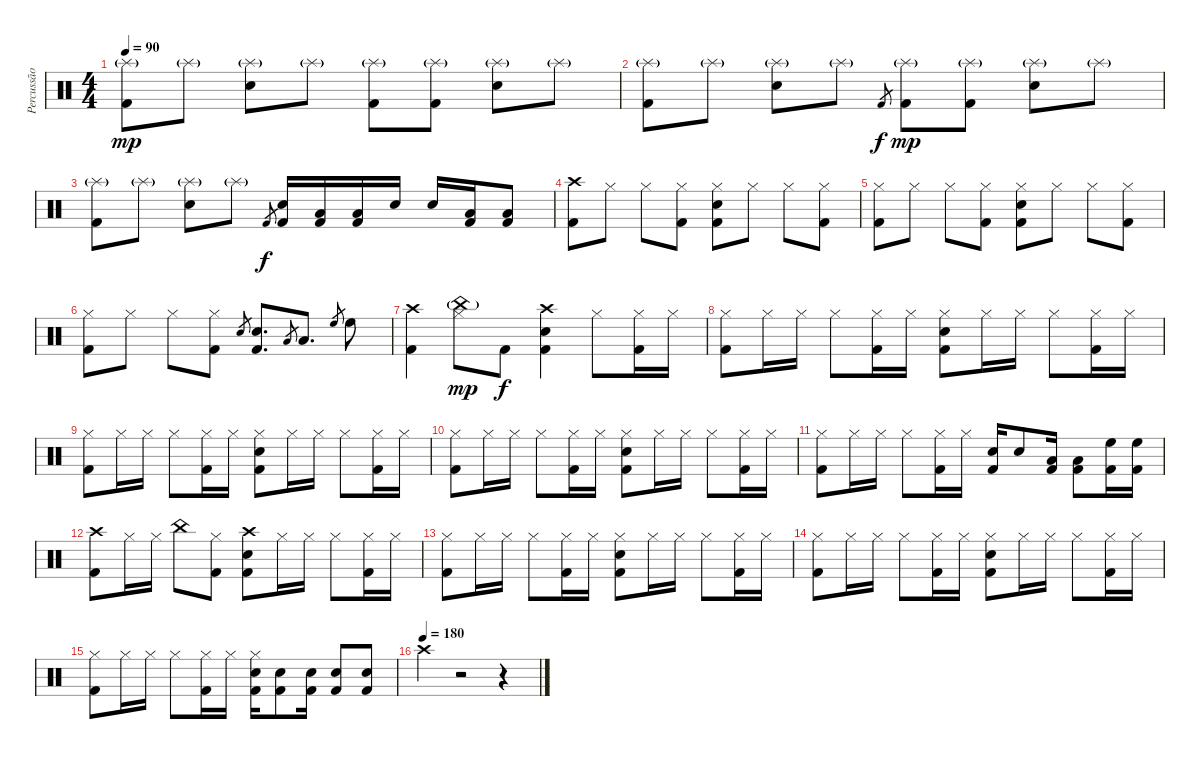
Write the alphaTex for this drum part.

\track ("Percussão" "Percussão") {instrument percussion}
\staff {score}
\articulation defaults
\ts (4 4)
\tempo 90
\clef neutral
\ks c
("Kick (hit) 2" "Splash (hit)"{g}).8{dy mp} "Splash (hit)"{g}.8 ("Snare (hit) 2" "Splash (hit)"{g}).8 "Splash (hit)"{g}.8 ("Kick (hit) 2" "Splash (hit)"{g}).8 ("Kick (hit) 2" "Splash (hit)"{g}).8 ("Snare (hit) 2" "Splash (hit)"{g}).8 "Splash (hit)"{g}.8 |
("Kick (hit) 2" "Splash (hit)"{g}).8 "Splash (hit)"{g}.8 ("Snare (hit) 2" "Splash (hit)"{g}).8 "Splash (hit)"{g}.8 "Kick (hit) 2".8{gr dy f} ("Kick (hit) 2" "Splash (hit)"{g}).8{dy mp} ("Kick (hit) 2" "Splash (hit)"{g}).8 ("Snare (hit) 2" "Splash (hit)"{g}).8 "Splash (hit)"{g}.8 |
("Kick (hit) 2" "Splash (hit)"{g}).8 "Splash (hit)"{g}.8 ("Snare (hit) 2" "Splash (hit)"{g}).8 "Splash (hit)"{g}.8 "Kick (hit) 2".8{gr dy f} ("Kick (hit) 2" "Snare (hit) 2").16 ("Kick (hit) 2" "Low Tom (hit)").16 ("Kick (hit) 2" "Low Tom (hit)").16 "Snare (hit) 2".16 "Snare (hit) 2".16 ("Kick (hit) 2" "Low Tom (hit)").16 ("Kick (hit) 2" "Low Tom (hit)").8 |
("Kick (hit) 2" "Crash high (hit)").8 "Hi-Hat (closed)".8 "Hi-Hat (closed)".8 ("Kick (hit) 2" "Hi-Hat (closed)").8 ("Kick (hit) 2" "Snare (hit) 2" "Hi-Hat (closed)").8 "Hi-Hat (closed)".8 "Hi-Hat (closed)".8 ("Kick (hit) 2" "Hi-Hat (closed)").8 |
("Kick (hit) 2" "Hi-Hat (closed)").8 "Hi-Hat (closed)".8 "Hi-Hat (closed)".8 ("Kick (hit) 2" "Hi-Hat (closed)").8 ("Kick (hit) 2" "Snare (hit) 2" "Hi-Hat (closed)").8 "Hi-Hat (closed)".8 "Hi-Hat (closed)".8 ("Kick (hit) 2" "Hi-Hat (closed)").8 |
("Kick (hit) 2" "Hi-Hat (closed)").8 "Hi-Hat (closed)".8 "Hi-Hat (closed)".8 ("Kick (hit) 2" "Hi-Hat (closed)").8 "Snare (hit) 2".8{gr} ("Kick (hit) 2" "Snare (hit) 2").8{d} "Low Tom (hit)".8{gr} "Low Tom (hit)".8{d} "High Floor Tom (hit)".8{gr} "High Floor Tom (hit)".8 |
("Kick (hit) 2" "Crash high (hit)").4 ("Hi-Hat (closed)" "China (hit)"{g}).8{dy mp} "Kick (hit) 2".8{dy f} ("Kick (hit) 2" "Snare (hit) 2" "Crash high (hit)").4 "Hi-Hat (closed)".8 ("Kick (hit) 2" "Hi-Hat (closed)").16 "Hi-Hat (closed)".16 |
("Kick (hit) 2" "Hi-Hat (closed)").8 "Hi-Hat (closed)".16 "Hi-Hat (closed)".16 "Hi-Hat (closed)".8 ("Kick (hit) 2" "Hi-Hat (closed)").16 "Hi-Hat (closed)".16 ("Kick (hit) 2" "Snare (hit) 2" "Hi-Hat (closed)").8 "Hi-Hat (closed)".16 "Hi-Hat (closed)".16 "Hi-Hat (closed)".8 ("Kick (hit) 2" "Hi-Hat (closed)").16 "Hi-Hat (closed)".16 |
("Kick (hit) 2" "Hi-Hat (closed)").8 "Hi-Hat (closed)".16 "Hi-Hat (closed)".16 "Hi-Hat (closed)".8 ("Kick (hit) 2" "Hi-Hat (closed)").16 "Hi-Hat (closed)".16 ("Kick (hit) 2" "Snare (hit) 2" "Hi-Hat (closed)").8 "Hi-Hat (closed)".16 "Hi-Hat (closed)".16 "Hi-Hat (closed)".8 ("Kick (hit) 2" "Hi-Hat (closed)").16 "Hi-Hat (closed)".16 |
("Kick (hit) 2" "Hi-Hat (closed)").8 "Hi-Hat (closed)".16 "Hi-Hat (closed)".16 "Hi-Hat (closed)".8 ("Kick (hit) 2" "Hi-Hat (closed)").16 "Hi-Hat (closed)".16 ("Kick (hit) 2" "Snare (hit) 2" "Hi-Hat (closed)").8 "Hi-Hat (closed)".16 "Hi-Hat (closed)".16 "Hi-Hat (closed)".8 ("Kick (hit) 2" "Hi-Hat (closed)").16 "Hi-Hat (closed)".16 |
("Kick (hit) 2" "Hi-Hat (closed)").8 "Hi-Hat (closed)".16 "Hi-Hat (closed)".16 "Hi-Hat (closed)".8 ("Kick (hit) 2" "Hi-Hat (closed)").16 "Hi-Hat (closed)".16 ("Kick (hit) 2" "Snare (hit) 2").16 "Snare (hit) 2".8 ("Kick (hit) 2" "Low Tom (hit)").16 ("Kick (hit) 2" "Low Tom (hit)").8 ("Kick (hit) 2" "High Floor Tom (hit)").16 ("Kick (hit) 2" "High Floor Tom (hit)").16 |
("Kick (hit) 2" "Crash high (hit)").8 "Hi-Hat (closed)".16 "Hi-Hat (closed)".16 "China (hit)".8 ("Kick (hit) 2" "Hi-Hat (closed)").8 ("Kick (hit) 2" "Snare (hit) 2" "Crash high (hit)").8 "Hi-Hat (closed)".16 "Hi-Hat (closed)".16 "Hi-Hat (closed)".8 ("Kick (hit) 2" "Hi-Hat (closed)").16 "Hi-Hat (closed)".16 |
("Kick (hit) 2" "Hi-Hat (closed)").8 "Hi-Hat (closed)".16 "Hi-Hat (closed)".16 "Hi-Hat (closed)".8 ("Kick (hit) 2" "Hi-Hat (closed)").16 "Hi-Hat (closed)".16 ("Kick (hit) 2" "Snare (hit) 2" "Hi-Hat (closed)").8 "Hi-Hat (closed)".16 "Hi-Hat (closed)".16 "Hi-Hat (closed)".8 ("Kick (hit) 2" "Hi-Hat (closed)").16 "Hi-Hat (closed)".16 |
("Kick (hit) 2" "Hi-Hat (closed)").8 "Hi-Hat (closed)".16 "Hi-Hat (closed)".16 "Hi-Hat (closed)".8 ("Kick (hit) 2" "Hi-Hat (closed)").16 "Hi-Hat (closed)".16 ("Kick (hit) 2" "Snare (hit) 2" "Hi-Hat (closed)").8 "Hi-Hat (closed)".16 "Hi-Hat (closed)".16 "Hi-Hat (closed)".8 ("Kick (hit) 2" "Hi-Hat (closed)").16 "Hi-Hat (closed)".16 |
("Kick (hit) 2" "Hi-Hat (closed)").8 "Hi-Hat (closed)".16 "Hi-Hat (closed)".16 "Hi-Hat (closed)".8 ("Kick (hit) 2" "Hi-Hat (closed)").16 "Hi-Hat (closed)".16 ("Kick (hit) 2" "Snare (hit) 2" "Hi-Hat (closed)").16 ("Kick (hit) 2" "Snare (hit) 2").8 ("Kick (hit) 2" "Snare (hit) 2").16 ("Kick (hit) 2" "Snare (hit) 2").8 ("Kick (hit) 2" "Snare (hit) 2").8 |
\tempo (180)
"Crash high (hit)".4 r.2 r.4
